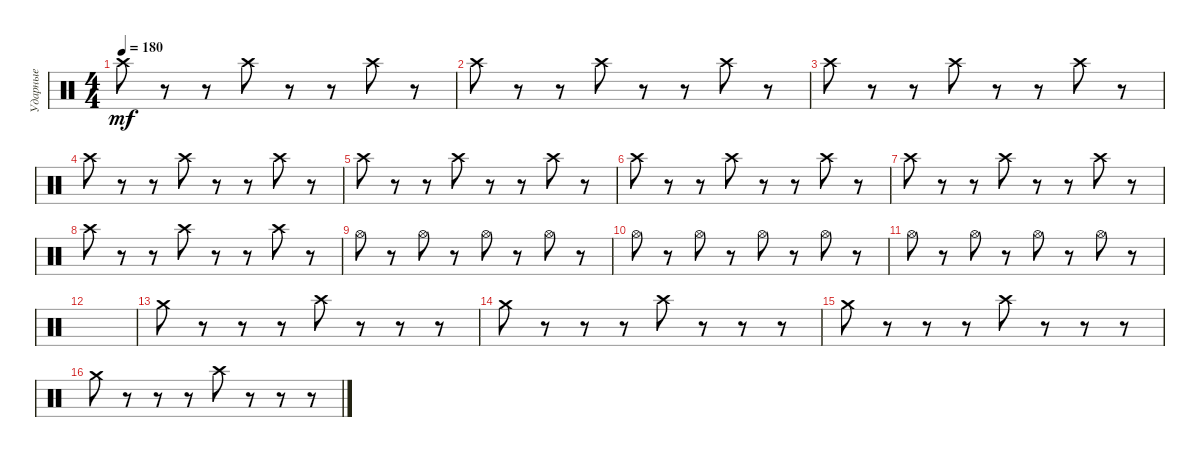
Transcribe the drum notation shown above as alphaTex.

\track ("Ударные" "Ударные") {instrument percussion}
\staff {score}
\articulation defaults
\ts (4 4)
\tempo 180
\clef neutral
\ks c "Crash high (hit)".8{dy mf}
r.8 r.8 "Crash high (hit)".8 r.8 r.8 "Crash high (hit)".8 r.8 |
"Crash high (hit)".8 r.8 r.8 "Crash high (hit)".8 r.8 r.8 "Crash high (hit)".8 r.8 |
"Crash high (hit)".8 r.8 r.8 "Crash high (hit)".8 r.8 r.8 "Crash high (hit)".8 r.8 |
"Crash high (hit)".8 r.8 r.8 "Crash high (hit)".8 r.8 r.8 "Crash high (hit)".8 r.8 |
"Crash high (hit)".8 r.8 r.8 "Crash high (hit)".8 r.8 r.8 "Crash high (hit)".8 r.8 |
"Crash high (hit)".8 r.8 r.8 "Crash high (hit)".8 r.8 r.8 "Crash high (hit)".8 r.8 |
"Crash high (hit)".8 r.8 r.8 "Crash high (hit)".8 r.8 r.8 "Crash high (hit)".8 r.8 |
"Crash high (hit)".8 r.8 r.8 "Crash high (hit)".8 r.8 r.8 "Crash high (hit)".8 r.8 |
"Hi-Hat (open)".8 r.8 "Hi-Hat (open)".8 r.8 "Hi-Hat (open)".8 r.8 "Hi-Hat (open)".8 r.8 |
"Hi-Hat (open)".8 r.8 "Hi-Hat (open)".8 r.8 "Hi-Hat (open)".8 r.8 "Hi-Hat (open)".8 r.8 |
"Hi-Hat (open)".8 r.8 "Hi-Hat (open)".8 r.8 "Hi-Hat (open)".8 r.8 "Hi-Hat (open)".8 r.8 |
|
"Crash medium (hit)".8 r.8 r.8 r.8 "Crash high (hit)".8 r.8 r.8 r.8 |
"Crash medium (hit)".8 r.8 r.8 r.8 "Crash high (hit)".8 r.8 r.8 r.8 |
"Crash medium (hit)".8 r.8 r.8 r.8 "Crash high (hit)".8 r.8 r.8 r.8 |
"Crash medium (hit)".8 r.8 r.8 r.8 "Crash high (hit)".8 r.8 r.8 r.8
